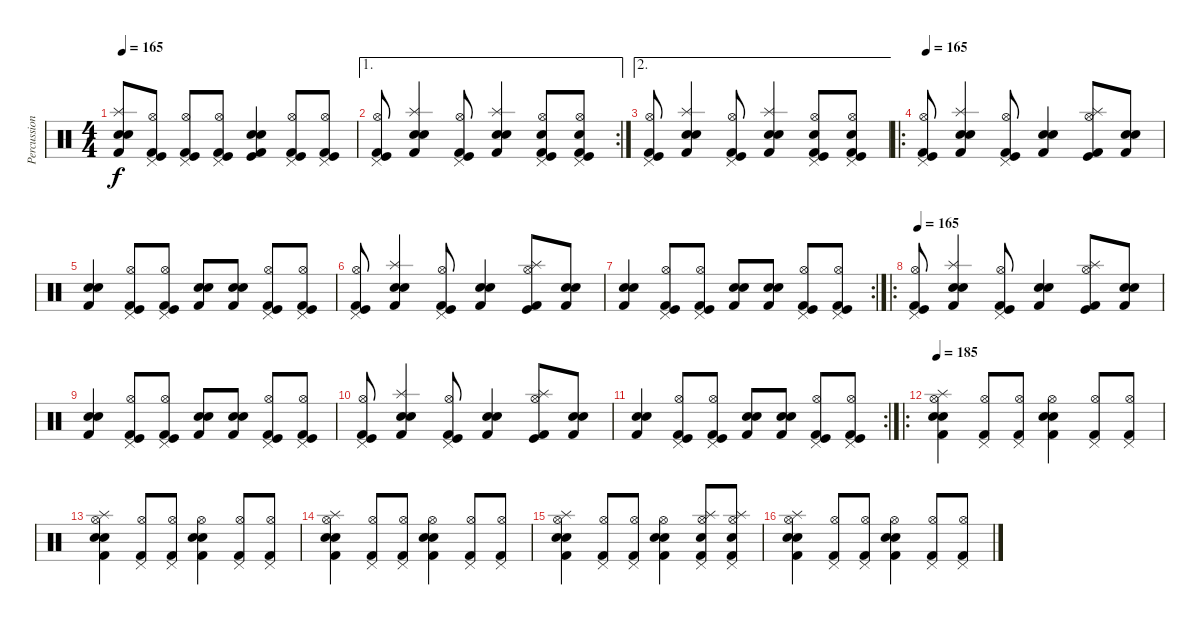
\track ("Percussions" "Percussion") {instrument percussion}
\staff {score}
\articulation defaults
\ts (4 4)
\tempo 165
\clef neutral
\ks c
("Kick (hit) 2" "Splash (hit)" "Snare (hit) 2" "Electric Snare (hit)").8{dy f} ("Hi-Hat (open)" "Pedal Hi-Hat (hit)" "Kick (hit)" "Kick (hit) 2").8 ("Hi-Hat (open)" "Pedal Hi-Hat (hit)" "Kick (hit)" "Kick (hit) 2").8 ("Hi-Hat (open)" "Pedal Hi-Hat (hit)" "Kick (hit)" "Kick (hit) 2").8 ("Kick (hit)" "Electric Snare (hit)" "Snare (hit) 2" "Kick (hit) 2").4 ("Hi-Hat (open)" "Pedal Hi-Hat (hit)" "Kick (hit)" "Kick (hit) 2").8 ("Hi-Hat (open)" "Pedal Hi-Hat (hit)" "Kick (hit) 2" "Kick (hit)").8 |
\ae 1
\rc 2
("Hi-Hat (open)" "Pedal Hi-Hat (hit)" "Kick (hit) 2" "Kick (hit)").8 ("Kick (hit) 2" "Splash (hit)" "Snare (hit) 2" "Electric Snare (hit)").4 ("Hi-Hat (open)" "Pedal Hi-Hat (hit)" "Kick (hit) 2" "Kick (hit)").8 ("Kick (hit) 2" "Splash (hit)" "Snare (hit) 2" "Electric Snare (hit)").4 ("Hi-Hat (open)" "Pedal Hi-Hat (hit)" "Kick (hit) 2" "Kick (hit)" "Electric Snare (hit)").8 ("Hi-Hat (open)" "Pedal Hi-Hat (hit)" "Kick (hit) 2" "Kick (hit)" "Electric Snare (hit)").8 |
\ae 2
("Hi-Hat (open)" "Pedal Hi-Hat (hit)" "Kick (hit) 2" "Kick (hit)").8 ("Kick (hit) 2" "Splash (hit)" "Snare (hit) 2" "Electric Snare (hit)").4 ("Hi-Hat (open)" "Pedal Hi-Hat (hit)" "Kick (hit) 2" "Kick (hit)").8 ("Kick (hit) 2" "Splash (hit)" "Snare (hit) 2" "Electric Snare (hit)").4 ("Hi-Hat (open)" "Pedal Hi-Hat (hit)" "Kick (hit) 2" "Kick (hit)" "Electric Snare (hit)").8 ("Hi-Hat (open)" "Pedal Hi-Hat (hit)" "Kick (hit) 2" "Kick (hit)" "Electric Snare (hit)").8 |
\ro
\tempo 165
("Hi-Hat (open)" "Pedal Hi-Hat (hit)" "Kick (hit) 2" "Kick (hit)").8 ("Kick (hit) 2" "Splash (hit)" "Snare (hit) 2" "Electric Snare (hit)").4 ("Hi-Hat (open)" "Pedal Hi-Hat (hit)" "Kick (hit) 2" "Kick (hit)").8 ("Kick (hit) 2" "Snare (hit) 2" "Electric Snare (hit)").4 ("Hi-Hat (open)" "Splash (hit)" "Kick (hit) 2" "Kick (hit)").8 ("Kick (hit) 2" "Snare (hit) 2" "Electric Snare (hit)").8 |
("Kick (hit) 2" "Snare (hit) 2" "Electric Snare (hit)").4 ("Kick (hit)" "Hi-Hat (open)" "Pedal Hi-Hat (hit)" "Kick (hit) 2").8 ("Kick (hit)" "Hi-Hat (open)" "Pedal Hi-Hat (hit)" "Kick (hit) 2").8 ("Kick (hit) 2" "Snare (hit) 2" "Electric Snare (hit)").8 ("Kick (hit) 2" "Snare (hit) 2" "Electric Snare (hit)").8 ("Kick (hit)" "Hi-Hat (open)" "Pedal Hi-Hat (hit)" "Kick (hit) 2").8 ("Kick (hit)" "Hi-Hat (open)" "Pedal Hi-Hat (hit)" "Kick (hit) 2").8 |
("Hi-Hat (open)" "Pedal Hi-Hat (hit)" "Kick (hit) 2" "Kick (hit)").8 ("Kick (hit) 2" "Splash (hit)" "Snare (hit) 2" "Electric Snare (hit)").4 ("Hi-Hat (open)" "Pedal Hi-Hat (hit)" "Kick (hit) 2" "Kick (hit)").8 ("Kick (hit) 2" "Snare (hit) 2" "Electric Snare (hit)").4 ("Hi-Hat (open)" "Splash (hit)" "Kick (hit) 2" "Kick (hit)").8 ("Kick (hit) 2" "Snare (hit) 2" "Electric Snare (hit)").8 |
\rc 2
("Kick (hit) 2" "Snare (hit) 2" "Electric Snare (hit)").4 ("Kick (hit)" "Hi-Hat (open)" "Pedal Hi-Hat (hit)" "Kick (hit) 2").8 ("Kick (hit)" "Hi-Hat (open)" "Pedal Hi-Hat (hit)" "Kick (hit) 2").8 ("Kick (hit) 2" "Snare (hit) 2" "Electric Snare (hit)").8 ("Kick (hit) 2" "Snare (hit) 2" "Electric Snare (hit)").8 ("Kick (hit)" "Hi-Hat (open)" "Pedal Hi-Hat (hit)" "Kick (hit) 2").8 ("Kick (hit)" "Hi-Hat (open)" "Pedal Hi-Hat (hit)" "Kick (hit) 2").8 |
\ro
\tempo 165
("Hi-Hat (open)" "Pedal Hi-Hat (hit)" "Kick (hit) 2" "Kick (hit)").8 ("Kick (hit) 2" "Splash (hit)" "Snare (hit) 2" "Electric Snare (hit)").4 ("Hi-Hat (open)" "Pedal Hi-Hat (hit)" "Kick (hit) 2" "Kick (hit)").8 ("Kick (hit) 2" "Snare (hit) 2" "Electric Snare (hit)").4 ("Hi-Hat (open)" "Splash (hit)" "Kick (hit) 2" "Kick (hit)").8 ("Kick (hit) 2" "Snare (hit) 2" "Electric Snare (hit)").8 |
("Kick (hit) 2" "Snare (hit) 2" "Electric Snare (hit)").4 ("Kick (hit)" "Hi-Hat (open)" "Pedal Hi-Hat (hit)" "Kick (hit) 2").8 ("Kick (hit)" "Hi-Hat (open)" "Pedal Hi-Hat (hit)" "Kick (hit) 2").8 ("Kick (hit) 2" "Snare (hit) 2" "Electric Snare (hit)").8 ("Kick (hit) 2" "Snare (hit) 2" "Electric Snare (hit)").8 ("Kick (hit)" "Hi-Hat (open)" "Pedal Hi-Hat (hit)" "Kick (hit) 2").8 ("Kick (hit)" "Hi-Hat (open)" "Pedal Hi-Hat (hit)" "Kick (hit) 2").8 |
("Hi-Hat (open)" "Pedal Hi-Hat (hit)" "Kick (hit) 2" "Kick (hit)").8 ("Kick (hit) 2" "Splash (hit)" "Snare (hit) 2" "Electric Snare (hit)").4 ("Hi-Hat (open)" "Pedal Hi-Hat (hit)" "Kick (hit) 2" "Kick (hit)").8 ("Kick (hit) 2" "Snare (hit) 2" "Electric Snare (hit)").4 ("Hi-Hat (open)" "Splash (hit)" "Kick (hit) 2" "Kick (hit)").8 ("Kick (hit) 2" "Snare (hit) 2" "Electric Snare (hit)").8 |
\rc 2
("Kick (hit) 2" "Snare (hit) 2" "Electric Snare (hit)").4 ("Kick (hit)" "Hi-Hat (open)" "Pedal Hi-Hat (hit)" "Kick (hit) 2").8 ("Kick (hit)" "Hi-Hat (open)" "Pedal Hi-Hat (hit)" "Kick (hit) 2").8 ("Kick (hit) 2" "Snare (hit) 2" "Electric Snare (hit)").8 ("Kick (hit) 2" "Snare (hit) 2" "Electric Snare (hit)").8 ("Kick (hit)" "Hi-Hat (open)" "Pedal Hi-Hat (hit)" "Kick (hit) 2").8 ("Kick (hit)" "Hi-Hat (open)" "Pedal Hi-Hat (hit)" "Kick (hit) 2").8 |
\ro
\tempo 185
("Hi-Hat (open)" "Splash (hit)" "Kick (hit) 2" "Snare (hit) 2" "Electric Snare (hit)").4 ("Hi-Hat (open)" "Pedal Hi-Hat (hit)" "Kick (hit) 2").8 ("Hi-Hat (open)" "Pedal Hi-Hat (hit)" "Kick (hit) 2").8 ("Electric Snare (hit)" "Snare (hit) 2" "Hi-Hat (open)" "Kick (hit) 2").4 ("Hi-Hat (open)" "Pedal Hi-Hat (hit)" "Kick (hit) 2").8 ("Hi-Hat (open)" "Pedal Hi-Hat (hit)" "Kick (hit) 2").8 |
("Hi-Hat (open)" "Splash (hit)" "Kick (hit) 2" "Snare (hit) 2" "Electric Snare (hit)").4 ("Hi-Hat (open)" "Pedal Hi-Hat (hit)" "Kick (hit) 2").8 ("Hi-Hat (open)" "Pedal Hi-Hat (hit)" "Kick (hit) 2").8 ("Electric Snare (hit)" "Snare (hit) 2" "Hi-Hat (open)" "Kick (hit) 2").4 ("Hi-Hat (open)" "Pedal Hi-Hat (hit)" "Kick (hit) 2").8 ("Hi-Hat (open)" "Pedal Hi-Hat (hit)" "Kick (hit) 2").8 |
("Hi-Hat (open)" "Splash (hit)" "Kick (hit) 2" "Snare (hit) 2" "Electric Snare (hit)").4 ("Hi-Hat (open)" "Pedal Hi-Hat (hit)" "Kick (hit) 2").8 ("Hi-Hat (open)" "Pedal Hi-Hat (hit)" "Kick (hit) 2").8 ("Electric Snare (hit)" "Snare (hit) 2" "Hi-Hat (open)" "Kick (hit) 2").4 ("Hi-Hat (open)" "Pedal Hi-Hat (hit)" "Kick (hit) 2").8 ("Hi-Hat (open)" "Pedal Hi-Hat (hit)" "Kick (hit) 2").8 |
("Hi-Hat (open)" "Splash (hit)" "Kick (hit) 2" "Snare (hit) 2" "Electric Snare (hit)").4 ("Hi-Hat (open)" "Pedal Hi-Hat (hit)" "Kick (hit) 2").8 ("Hi-Hat (open)" "Pedal Hi-Hat (hit)" "Kick (hit) 2").8 ("Electric Snare (hit)" "Snare (hit) 2" "Hi-Hat (open)" "Kick (hit) 2").4 ("Hi-Hat (open)" "Splash (hit)" "Pedal Hi-Hat (hit)" "Kick (hit) 2" "Electric Snare (hit)").8 ("Splash (hit)" "Hi-Hat (open)" "Pedal Hi-Hat (hit)" "Kick (hit) 2" "Electric Snare (hit)").8 |
("Hi-Hat (open)" "Splash (hit)" "Kick (hit) 2" "Snare (hit) 2" "Electric Snare (hit)").4 ("Hi-Hat (open)" "Pedal Hi-Hat (hit)" "Kick (hit) 2").8 ("Hi-Hat (open)" "Pedal Hi-Hat (hit)" "Kick (hit) 2").8 ("Electric Snare (hit)" "Snare (hit) 2" "Hi-Hat (open)" "Kick (hit) 2").4 ("Hi-Hat (open)" "Pedal Hi-Hat (hit)" "Kick (hit) 2").8 ("Hi-Hat (open)" "Pedal Hi-Hat (hit)" "Kick (hit) 2").8
